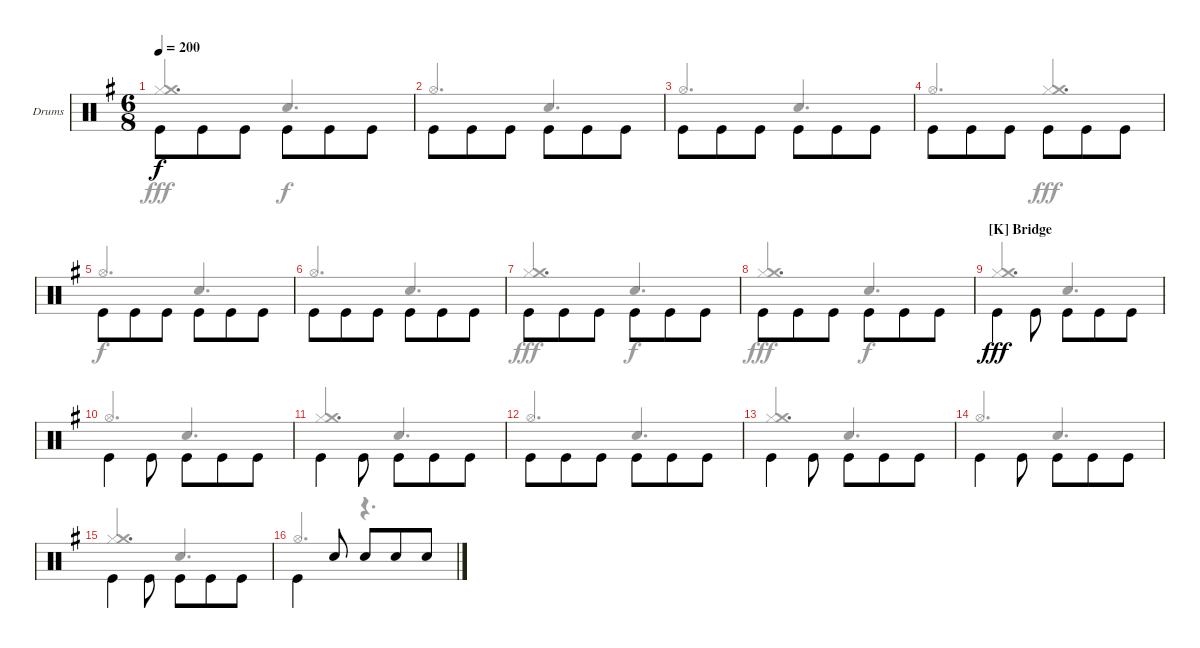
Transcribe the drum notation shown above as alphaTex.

\bracketExtendMode groupsimilarinstruments
\firstSystemTrackNameOrientation horizontal
\otherSystemsTrackNameOrientation horizontal
\track ("Drumkit" "Drums") {instrument percussion}
\staff {score}
\articulation defaults
\voice
\ts (6 8)
\tempo 200
\clef neutral
\ks eminor "Kick (hit)".8{dy f beam invert} "Kick (hit)".8{beam invert} "Kick (hit)".8{beam invert} "Kick (hit)".8 "Kick (hit)".8 "Kick (hit)".8{beam invert}
|
"Kick (hit)".8{beam invert} "Kick (hit)".8{beam invert} "Kick (hit)".8{beam invert} "Kick (hit)".8 "Kick (hit)".8 "Kick (hit)".8{beam invert} |
"Kick (hit)".8{beam invert} "Kick (hit)".8{beam invert} "Kick (hit)".8{beam invert} "Kick (hit)".8 "Kick (hit)".8 "Kick (hit)".8{beam invert} |
"Kick (hit)".8{beam invert} "Kick (hit)".8{beam invert} "Kick (hit)".8{beam invert} "Kick (hit)".8 "Kick (hit)".8 "Kick (hit)".8{beam invert} |
"Kick (hit)".8{beam invert} "Kick (hit)".8{beam invert} "Kick (hit)".8{beam invert} "Kick (hit)".8 "Kick (hit)".8 "Kick (hit)".8{beam invert} |
"Kick (hit)".8{beam invert} "Kick (hit)".8{beam invert} "Kick (hit)".8{beam invert} "Kick (hit)".8 "Kick (hit)".8 "Kick (hit)".8{beam invert} |
"Kick (hit)".8{beam invert} "Kick (hit)".8{beam invert} "Kick (hit)".8{beam invert} "Kick (hit)".8 "Kick (hit)".8 "Kick (hit)".8{beam invert} |
"Kick (hit)".8{beam invert} "Kick (hit)".8{beam invert} "Kick (hit)".8{beam invert} "Kick (hit)".8 "Kick (hit)".8 "Kick (hit)".8{beam invert} |
\section ("K" "Bridge")
"Kick (hit)".4{dy fff beam invert} "Kick (hit)".8{beam invert} "Kick (hit)".8{beam invert} "Kick (hit)".8 "Kick (hit)".8 |
"Kick (hit)".4{beam invert} "Kick (hit)".8{beam invert} "Kick (hit)".8 "Kick (hit)".8{beam invert} "Kick (hit)".8 |
"Kick (hit)".4{beam invert} "Kick (hit)".8{beam invert} "Kick (hit)".8{beam invert} "Kick (hit)".8 "Kick (hit)".8 |
"Kick (hit)".8{beam invert} "Kick (hit)".8{beam invert} "Kick (hit)".8{beam invert} "Kick (hit)".8 "Kick (hit)".8 "Kick (hit)".8{beam invert} |
"Kick (hit)".4{beam invert} "Kick (hit)".8{beam invert} "Kick (hit)".8{beam invert} "Kick (hit)".8 "Kick (hit)".8 |
"Kick (hit)".4{beam invert} "Kick (hit)".8{beam invert} "Kick (hit)".8 "Kick (hit)".8{beam invert} "Kick (hit)".8 |
"Kick (hit)".4{beam invert} "Kick (hit)".8{beam invert} "Kick (hit)".8{beam invert} "Kick (hit)".8 "Kick (hit)".8 |
"Kick (hit)".4{beam invert} "Snare (hit) 2".8 "Snare (hit) 2".8 "Snare (hit) 2".8 "Snare (hit) 2".8
\voice
\clef neutral
\ottava regular
\simile none
\ks eminor
("Hi-Hat (closed)" "Crash medium (hit)").4{d dy fff beam invert} "Snare (hit) 2".4{d dy f beam invert} |
"Hi-Hat (open)".4{d beam invert} "Snare (hit) 2".4{d beam invert} |
"Hi-Hat (open)".4{d beam invert} "Snare (hit) 2".4{d beam invert} |
"Hi-Hat (open)".4{d beam invert} ("Hi-Hat (closed)" "Crash medium (hit)").4{d dy fff beam invert} |
"Hi-Hat (open)".4{d dy f beam invert} "Snare (hit) 2".4{d beam invert} |
"Hi-Hat (open)".4{d beam invert} "Snare (hit) 2".4{d beam invert} |
("Hi-Hat (closed)" "Crash medium (hit)").4{d dy fff beam invert} "Snare (hit) 2".4{d dy f beam invert} |
("Hi-Hat (closed)" "Crash medium (hit)").4{d dy fff beam invert} "Snare (hit) 2".4{d dy f beam invert} |
("Hi-Hat (closed)" "Crash medium (hit)").4{d dy fff beam invert} "Snare (hit) 2".4{d beam invert} |
"Hi-Hat (open)".4{d beam invert} "Snare (hit) 2".4{d beam invert} |
("Hi-Hat (closed)" "Crash medium (hit)").4{d beam invert} "Snare (hit) 2".4{d beam invert} |
"Hi-Hat (open)".4{d beam invert} "Snare (hit) 2".4{d beam invert} |
("Hi-Hat (closed)" "Crash medium (hit)").4{d beam invert} "Snare (hit) 2".4{d beam invert} |
"Hi-Hat (open)".4{d beam invert} "Snare (hit) 2".4{d beam invert} |
("Hi-Hat (closed)" "Crash medium (hit)").4{d beam invert} "Snare (hit) 2".4{d beam invert} |
"Hi-Hat (open)".4{d beam invert} r.4{d beam invert}
